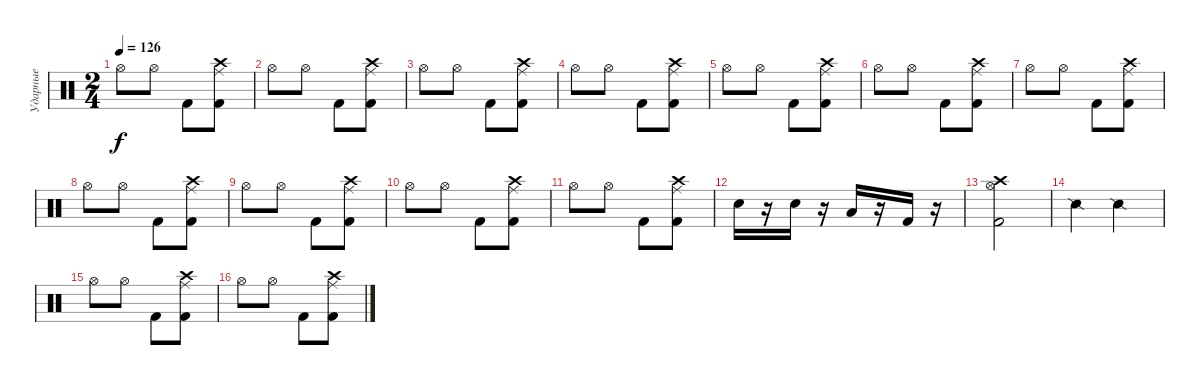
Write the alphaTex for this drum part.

\track ("Ударные" "Ударные") {instrument percussion}
\staff {score}
\articulation defaults
\ts (2 4)
\tempo 126
\clef neutral
\ks c "Hi-Hat (open)".8{dy f} "Hi-Hat (open)".8 "Kick (hit) 2".8
("Crash high (hit)" "Kick (hit) 2" "Ride (middle)").8 |
"Hi-Hat (open)".8 "Hi-Hat (open)".8 "Kick (hit) 2".8 ("Crash high (hit)" "Kick (hit) 2" "Ride (middle)").8 |
"Hi-Hat (open)".8 "Hi-Hat (open)".8 "Kick (hit) 2".8 ("Crash high (hit)" "Kick (hit) 2" "Ride (middle)").8 |
"Hi-Hat (open)".8 "Hi-Hat (open)".8 "Kick (hit) 2".8 ("Crash high (hit)" "Kick (hit) 2" "Ride (middle)").8 |
"Hi-Hat (open)".8 "Hi-Hat (open)".8 "Kick (hit) 2".8 ("Crash high (hit)" "Kick (hit) 2" "Ride (middle)").8 |
"Hi-Hat (open)".8 "Hi-Hat (open)".8 "Kick (hit) 2".8 ("Crash high (hit)" "Kick (hit) 2" "Ride (middle)").8 |
"Hi-Hat (open)".8 "Hi-Hat (open)".8 "Kick (hit) 2".8 ("Crash high (hit)" "Kick (hit) 2" "Ride (middle)").8 |
"Hi-Hat (open)".8 "Hi-Hat (open)".8 "Kick (hit) 2".8 ("Crash high (hit)" "Kick (hit) 2" "Ride (middle)").8 |
"Hi-Hat (open)".8 "Hi-Hat (open)".8 "Kick (hit) 2".8 ("Crash high (hit)" "Kick (hit) 2" "Ride (middle)").8 |
"Hi-Hat (open)".8 "Hi-Hat (open)".8 "Kick (hit) 2".8 ("Crash high (hit)" "Kick (hit) 2" "Ride (middle)").8 |
"Hi-Hat (open)".8 "Hi-Hat (open)".8 "Kick (hit) 2".8 ("Crash high (hit)" "Kick (hit) 2" "Ride (middle)").8 |
"Electric Snare (hit)".16 r.16 "Snare (hit) 2".16 r.16 "Low Tom (hit)".16 r.16 "Kick (hit) 2".16 r.16 |
("Crash high (hit)" "Kick (hit) 2" "Hi-Hat (open)").2 |
"Snare (side stick) 2".4 "Snare (side stick) 2".4 |
"Hi-Hat (open)".8 "Hi-Hat (open)".8 "Kick (hit) 2".8 ("Crash high (hit)" "Kick (hit) 2" "Ride (middle)").8 |
"Hi-Hat (open)".8 "Hi-Hat (open)".8 "Kick (hit) 2".8 ("Crash high (hit)" "Kick (hit) 2" "Ride (middle)").8
